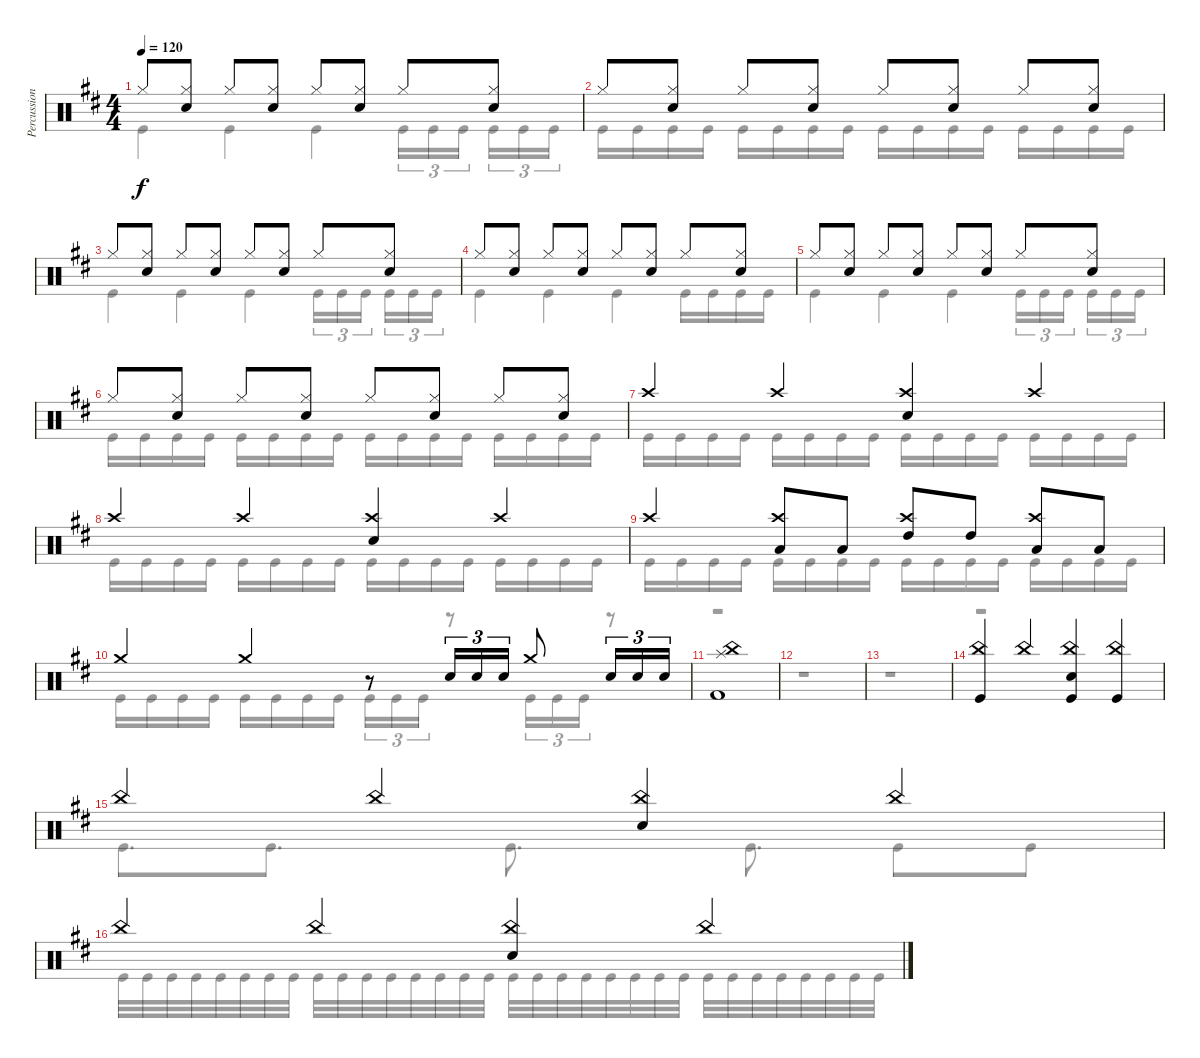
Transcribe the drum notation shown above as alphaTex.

\track ("Percussion" "Percussion") {instrument percussion}
\staff {score}
\articulation defaults
\voice
\ts (4 4)
\tempo 120
\clef neutral
\ks bminor "Hi-Hat (closed)".8{dy f}
("Hi-Hat (closed)" "Snare (hit) 2").8 "Hi-Hat (closed)".8 ("Hi-Hat (closed)" "Snare (hit) 2").8 "Hi-Hat (closed)".8 ("Hi-Hat (closed)" "Snare (hit) 2").8 "Hi-Hat (closed)".8 ("Hi-Hat (closed)" "Snare (hit) 2").8 |
"Hi-Hat (closed)".8 ("Hi-Hat (closed)" "Snare (hit) 2").8 "Hi-Hat (closed)".8 ("Hi-Hat (closed)" "Snare (hit) 2").8 "Hi-Hat (closed)".8 ("Hi-Hat (closed)" "Snare (hit) 2").8 "Hi-Hat (closed)".8 ("Hi-Hat (closed)" "Snare (hit) 2").8 |
"Hi-Hat (closed)".8 ("Hi-Hat (closed)" "Snare (hit) 2").8 "Hi-Hat (closed)".8 ("Hi-Hat (closed)" "Snare (hit) 2").8 "Hi-Hat (closed)".8 ("Hi-Hat (closed)" "Snare (hit) 2").8 "Hi-Hat (closed)".8 ("Hi-Hat (closed)" "Snare (hit) 2").8 |
"Hi-Hat (closed)".8 ("Hi-Hat (closed)" "Snare (hit) 2").8 "Hi-Hat (closed)".8 ("Hi-Hat (closed)" "Snare (hit) 2").8 "Hi-Hat (closed)".8 ("Hi-Hat (closed)" "Snare (hit) 2").8 "Hi-Hat (closed)".8 ("Hi-Hat (closed)" "Snare (hit) 2").8 |
"Hi-Hat (closed)".8 ("Hi-Hat (closed)" "Snare (hit) 2").8 "Hi-Hat (closed)".8 ("Hi-Hat (closed)" "Snare (hit) 2").8 "Hi-Hat (closed)".8 ("Hi-Hat (closed)" "Snare (hit) 2").8 "Hi-Hat (closed)".8 ("Hi-Hat (closed)" "Snare (hit) 2").8 |
"Hi-Hat (closed)".8 ("Hi-Hat (closed)" "Snare (hit) 2").8 "Hi-Hat (closed)".8 ("Hi-Hat (closed)" "Snare (hit) 2").8 "Hi-Hat (closed)".8 ("Hi-Hat (closed)" "Snare (hit) 2").8 "Hi-Hat (closed)".8 ("Hi-Hat (closed)" "Snare (hit) 2").8 |
"Crash high (hit)".4 "Crash high (hit)".4 ("Crash high (hit)" "Snare (hit) 2").4 "Crash high (hit)".4 |
"Crash high (hit)".4 "Crash high (hit)".4 ("Crash high (hit)" "Snare (hit) 2").4 "Crash high (hit)".4 |
"Crash high (hit)".4 ("Crash high (hit)" "Low Tom (hit)").8 "Low Tom (hit)".8 ("Crash high (hit)" "High Tom (hit)").8 "High Tom (hit)".8 ("Crash high (hit)" "Low Tom (hit)").8 "Low Tom (hit)".8 |
"Crash medium (hit)".4 "Crash medium (hit)".4 r.8 "Snare (hit) 2".16{tu (3 2)} "Snare (hit) 2".16{tu (3 2)} "Snare (hit) 2".16{tu (3 2)} "Crash medium (hit)".8 "Snare (hit) 2".16{tu (3 2)} "Snare (hit) 2".16{tu (3 2)} "Snare (hit) 2".16{tu (3 2)} |
("China (hit)" "Splash (hit)" "Kick (hit) 2").1 |
|
|
("China (hit)" "Kick (hit)").4 "China (hit)".4 ("China (hit)" "Snare (hit) 2" "Kick (hit)").4 ("China (hit)" "Kick (hit)").4 |
"China (hit)".4 "China (hit)".4 ("China (hit)" "Snare (hit) 2").4 "China (hit)".4 |
"China (hit)".4 "China (hit)".4 ("China (hit)" "Snare (hit) 2").4 "China (hit)".4
\voice
\clef neutral
\ottava regular
\simile none
\ks bminor "Kick (hit)".4{dy f} "Kick (hit)".4 "Kick (hit)".4 "Kick (hit)".16{tu (3 2)} "Kick (hit)".16{tu (3 2)} "Kick (hit)".16{tu (3 2) beam splitsecondary} "Kick (hit)".16{tu (3 2)} "Kick (hit)".16{tu (3 2)} "Kick (hit)".16{tu (3 2)}
|
"Kick (hit)".16 "Kick (hit)".16 "Kick (hit)".16 "Kick (hit)".16 "Kick (hit)".16 "Kick (hit)".16 "Kick (hit)".16 "Kick (hit)".16 "Kick (hit)".16 "Kick (hit)".16 "Kick (hit)".16 "Kick (hit)".16 "Kick (hit)".16 "Kick (hit)".16 "Kick (hit)".16 "Kick (hit)".16 |
"Kick (hit)".4 "Kick (hit)".4 "Kick (hit)".4 "Kick (hit)".16{tu (3 2)} "Kick (hit)".16{tu (3 2)} "Kick (hit)".16{tu (3 2) beam splitsecondary} "Kick (hit)".16{tu (3 2)} "Kick (hit)".16{tu (3 2)} "Kick (hit)".16{tu (3 2)} |
"Kick (hit)".4 "Kick (hit)".4 "Kick (hit)".4 "Kick (hit)".16 "Kick (hit)".16 "Kick (hit)".16 "Kick (hit)".16 |
"Kick (hit)".4 "Kick (hit)".4 "Kick (hit)".4 "Kick (hit)".16{tu (3 2)} "Kick (hit)".16{tu (3 2)} "Kick (hit)".16{tu (3 2) beam splitsecondary} "Kick (hit)".16{tu (3 2)} "Kick (hit)".16{tu (3 2)} "Kick (hit)".16{tu (3 2)} |
"Kick (hit)".16 "Kick (hit)".16 "Kick (hit)".16 "Kick (hit)".16 "Kick (hit)".16 "Kick (hit)".16 "Kick (hit)".16 "Kick (hit)".16 "Kick (hit)".16 "Kick (hit)".16 "Kick (hit)".16 "Kick (hit)".16 "Kick (hit)".16 "Kick (hit)".16 "Kick (hit)".16 "Kick (hit)".16 |
"Kick (hit)".16 "Kick (hit)".16 "Kick (hit)".16 "Kick (hit)".16 "Kick (hit)".16 "Kick (hit)".16 "Kick (hit)".16 "Kick (hit)".16 "Kick (hit)".16 "Kick (hit)".16 "Kick (hit)".16 "Kick (hit)".16 "Kick (hit)".16 "Kick (hit)".16 "Kick (hit)".16 "Kick (hit)".16 |
"Kick (hit)".16 "Kick (hit)".16 "Kick (hit)".16 "Kick (hit)".16 "Kick (hit)".16 "Kick (hit)".16 "Kick (hit)".16 "Kick (hit)".16 "Kick (hit)".16 "Kick (hit)".16 "Kick (hit)".16 "Kick (hit)".16 "Kick (hit)".16 "Kick (hit)".16 "Kick (hit)".16 "Kick (hit)".16 |
"Kick (hit)".16 "Kick (hit)".16 "Kick (hit)".16 "Kick (hit)".16 "Kick (hit)".16 "Kick (hit)".16 "Kick (hit)".16 "Kick (hit)".16 "Kick (hit)".16 "Kick (hit)".16 "Kick (hit)".16 "Kick (hit)".16 "Kick (hit)".16 "Kick (hit)".16 "Kick (hit)".16 "Kick (hit)".16 |
"Kick (hit)".16 "Kick (hit)".16 "Kick (hit)".16 "Kick (hit)".16 "Kick (hit)".16 "Kick (hit)".16 "Kick (hit)".16 "Kick (hit)".16 "Kick (hit)".16{tu (3 2)} "Kick (hit)".16{tu (3 2)} "Kick (hit)".16{tu (3 2)} r.8 "Kick (hit)".16{tu (3 2)} "Kick (hit)".16{tu (3 2)} "Kick (hit)".16{tu (3 2)} r.8 |
r.1 |
r.1 |
r.1 |
r.1 |
"Kick (hit)".8{d} "Kick (hit)".8{d} "Kick (hit)".8{d} "Kick (hit)".8{d} "Kick (hit)".8 "Kick (hit)".8 |
"Kick (hit)".32 "Kick (hit)".32 "Kick (hit)".32 "Kick (hit)".32 "Kick (hit)".32 "Kick (hit)".32 "Kick (hit)".32 "Kick (hit)".32 "Kick (hit)".32 "Kick (hit)".32 "Kick (hit)".32 "Kick (hit)".32 "Kick (hit)".32 "Kick (hit)".32 "Kick (hit)".32 "Kick (hit)".32 "Kick (hit)".32 "Kick (hit)".32 "Kick (hit)".32 "Kick (hit)".32 "Kick (hit)".32 "Kick (hit)".32 "Kick (hit)".32 "Kick (hit)".32 "Kick (hit)".32 "Kick (hit)".32 "Kick (hit)".32 "Kick (hit)".32 "Kick (hit)".32 "Kick (hit)".32 "Kick (hit)".32 "Kick (hit)".32
